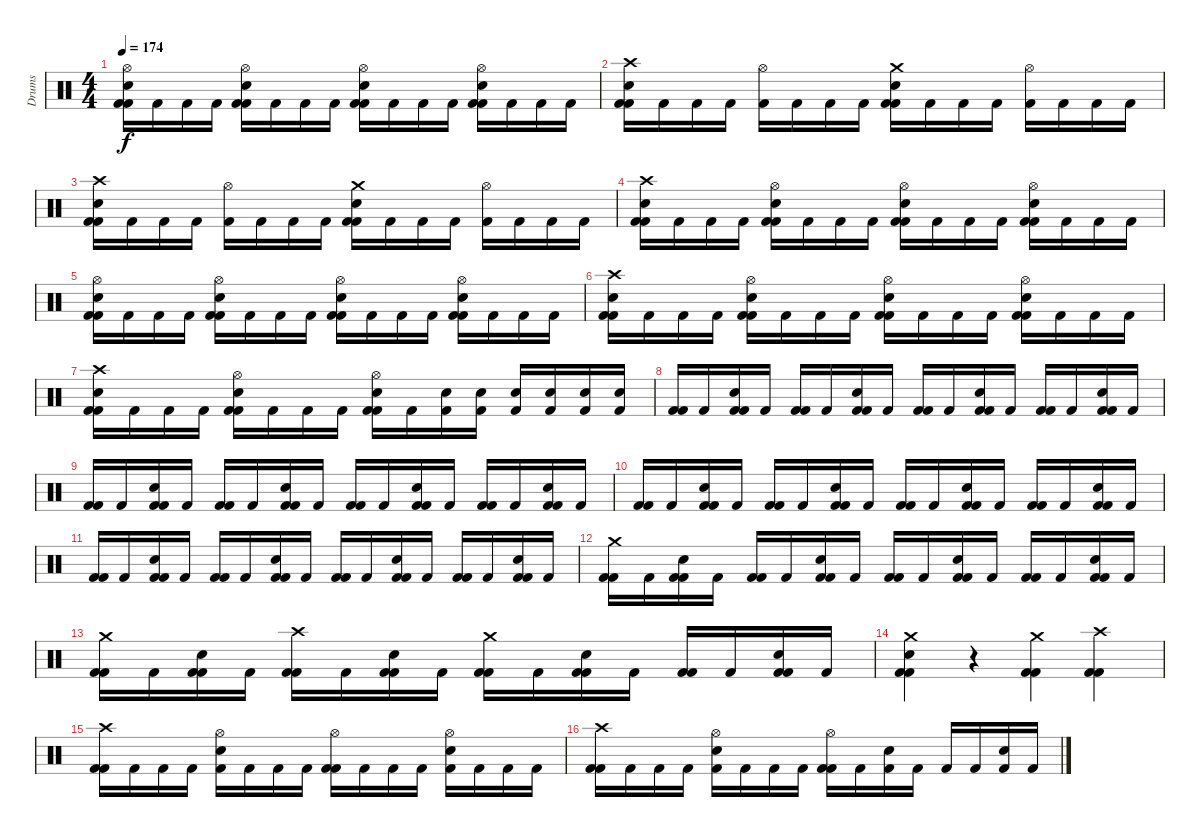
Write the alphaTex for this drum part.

\track ("Drums" "Drums") {instrument percussion}
\staff {score}
\articulation defaults
\ts (4 4)
\tempo 174
\clef neutral
\ks c
("Kick (hit) 2" "Kick (hit) 2" "Electric Snare (hit)" "Hi-Hat (open)").16{dy f} "Kick (hit) 2".16 "Kick (hit) 2".16 "Kick (hit) 2".16 ("Kick (hit) 2" "Kick (hit) 2" "Electric Snare (hit)" "Hi-Hat (open)").16 "Kick (hit) 2".16 "Kick (hit) 2".16 "Kick (hit) 2".16 ("Kick (hit) 2" "Kick (hit) 2" "Electric Snare (hit)" "Hi-Hat (open)").16 "Kick (hit) 2".16 "Kick (hit) 2".16 "Kick (hit) 2".16 ("Kick (hit) 2" "Kick (hit) 2" "Electric Snare (hit)" "Hi-Hat (open)").16 "Kick (hit) 2".16 "Kick (hit) 2".16 "Kick (hit) 2".16 |
("Kick (hit) 2" "Kick (hit) 2" "Electric Snare (hit)" "Crash high (hit)").16 "Kick (hit) 2".16 "Kick (hit) 2".16 "Kick (hit) 2".16 ("Kick (hit) 2" "Hi-Hat (open)").16 "Kick (hit) 2".16 "Kick (hit) 2".16 "Kick (hit) 2".16 ("Kick (hit) 2" "Kick (hit) 2" "Electric Snare (hit)" "Crash medium (hit)").16 "Kick (hit) 2".16 "Kick (hit) 2".16 "Kick (hit) 2".16 ("Kick (hit) 2" "Hi-Hat (open)").16 "Kick (hit) 2".16 "Kick (hit) 2".16 "Kick (hit) 2".16 |
("Kick (hit) 2" "Kick (hit) 2" "Electric Snare (hit)" "Crash high (hit)").16 "Kick (hit) 2".16 "Kick (hit) 2".16 "Kick (hit) 2".16 ("Kick (hit) 2" "Hi-Hat (open)").16 "Kick (hit) 2".16 "Kick (hit) 2".16 "Kick (hit) 2".16 ("Kick (hit) 2" "Kick (hit) 2" "Electric Snare (hit)" "Crash medium (hit)").16 "Kick (hit) 2".16 "Kick (hit) 2".16 "Kick (hit) 2".16 ("Kick (hit) 2" "Hi-Hat (open)").16 "Kick (hit) 2".16 "Kick (hit) 2".16 "Kick (hit) 2".16 |
("Kick (hit) 2" "Kick (hit) 2" "Electric Snare (hit)" "Crash high (hit)").16 "Kick (hit) 2".16 "Kick (hit) 2".16 "Kick (hit) 2".16 ("Kick (hit) 2" "Kick (hit) 2" "Electric Snare (hit)" "Hi-Hat (open)").16 "Kick (hit) 2".16 "Kick (hit) 2".16 "Kick (hit) 2".16 ("Kick (hit) 2" "Kick (hit) 2" "Electric Snare (hit)" "Hi-Hat (open)").16 "Kick (hit) 2".16 "Kick (hit) 2".16 "Kick (hit) 2".16 ("Kick (hit) 2" "Kick (hit) 2" "Electric Snare (hit)" "Hi-Hat (open)").16 "Kick (hit) 2".16 "Kick (hit) 2".16 "Kick (hit) 2".16 |
("Kick (hit) 2" "Kick (hit) 2" "Electric Snare (hit)" "Hi-Hat (open)").16 "Kick (hit) 2".16 "Kick (hit) 2".16 "Kick (hit) 2".16 ("Kick (hit) 2" "Kick (hit) 2" "Electric Snare (hit)" "Hi-Hat (open)").16 "Kick (hit) 2".16 "Kick (hit) 2".16 "Kick (hit) 2".16 ("Kick (hit) 2" "Kick (hit) 2" "Electric Snare (hit)" "Hi-Hat (open)").16 "Kick (hit) 2".16 "Kick (hit) 2".16 "Kick (hit) 2".16 ("Kick (hit) 2" "Kick (hit) 2" "Electric Snare (hit)" "Hi-Hat (open)").16 "Kick (hit) 2".16 "Kick (hit) 2".16 "Kick (hit) 2".16 |
("Kick (hit) 2" "Kick (hit) 2" "Electric Snare (hit)" "Crash high (hit)").16 "Kick (hit) 2".16 "Kick (hit) 2".16 "Kick (hit) 2".16 ("Kick (hit) 2" "Kick (hit) 2" "Electric Snare (hit)" "Hi-Hat (open)").16 "Kick (hit) 2".16 "Kick (hit) 2".16 "Kick (hit) 2".16 ("Kick (hit) 2" "Kick (hit) 2" "Electric Snare (hit)" "Hi-Hat (open)").16 "Kick (hit) 2".16 "Kick (hit) 2".16 "Kick (hit) 2".16 ("Kick (hit) 2" "Kick (hit) 2" "Electric Snare (hit)" "Hi-Hat (open)").16 "Kick (hit) 2".16 "Kick (hit) 2".16 "Kick (hit) 2".16 |
("Kick (hit) 2" "Kick (hit) 2" "Electric Snare (hit)" "Crash high (hit)").16 "Kick (hit) 2".16 "Kick (hit) 2".16 "Kick (hit) 2".16 ("Kick (hit) 2" "Kick (hit) 2" "Electric Snare (hit)" "Hi-Hat (open)").16 "Kick (hit) 2".16 "Kick (hit) 2".16 "Kick (hit) 2".16 ("Kick (hit) 2" "Kick (hit) 2" "Electric Snare (hit)" "Hi-Hat (open)").16 "Kick (hit) 2".16 ("Kick (hit) 2" "Electric Snare (hit)").16 ("Kick (hit) 2" "Electric Snare (hit)").16 ("Kick (hit) 2" "Electric Snare (hit)").16 ("Kick (hit) 2" "Electric Snare (hit)").16 ("Kick (hit) 2" "Electric Snare (hit)").16 ("Kick (hit) 2" "Electric Snare (hit)").16 |
("Kick (hit) 2" "Kick (hit) 2").16 "Kick (hit) 2".16 ("Kick (hit) 2" "Kick (hit) 2" "Electric Snare (hit)").16 "Kick (hit) 2".16 ("Kick (hit) 2" "Kick (hit) 2").16 "Kick (hit) 2".16 ("Kick (hit) 2" "Kick (hit) 2" "Electric Snare (hit)").16 "Kick (hit) 2".16 ("Kick (hit) 2" "Kick (hit) 2").16 "Kick (hit) 2".16 ("Kick (hit) 2" "Kick (hit) 2" "Electric Snare (hit)").16 "Kick (hit) 2".16 ("Kick (hit) 2" "Kick (hit) 2").16 "Kick (hit) 2".16 ("Kick (hit) 2" "Kick (hit) 2" "Electric Snare (hit)").16 "Kick (hit) 2".16 |
("Kick (hit) 2" "Kick (hit) 2").16 "Kick (hit) 2".16 ("Kick (hit) 2" "Kick (hit) 2" "Electric Snare (hit)").16 "Kick (hit) 2".16 ("Kick (hit) 2" "Kick (hit) 2").16 "Kick (hit) 2".16 ("Kick (hit) 2" "Kick (hit) 2" "Electric Snare (hit)").16 "Kick (hit) 2".16 ("Kick (hit) 2" "Kick (hit) 2").16 "Kick (hit) 2".16 ("Kick (hit) 2" "Kick (hit) 2" "Electric Snare (hit)").16 "Kick (hit) 2".16 ("Kick (hit) 2" "Kick (hit) 2").16 "Kick (hit) 2".16 ("Kick (hit) 2" "Kick (hit) 2" "Electric Snare (hit)").16 "Kick (hit) 2".16 |
("Kick (hit) 2" "Kick (hit) 2").16 "Kick (hit) 2".16 ("Kick (hit) 2" "Kick (hit) 2" "Electric Snare (hit)").16 "Kick (hit) 2".16 ("Kick (hit) 2" "Kick (hit) 2").16 "Kick (hit) 2".16 ("Kick (hit) 2" "Kick (hit) 2" "Electric Snare (hit)").16 "Kick (hit) 2".16 ("Kick (hit) 2" "Kick (hit) 2").16 "Kick (hit) 2".16 ("Kick (hit) 2" "Kick (hit) 2" "Electric Snare (hit)").16 "Kick (hit) 2".16 ("Kick (hit) 2" "Kick (hit) 2").16 "Kick (hit) 2".16 ("Kick (hit) 2" "Kick (hit) 2" "Electric Snare (hit)").16 "Kick (hit) 2".16 |
("Kick (hit) 2" "Kick (hit) 2").16 "Kick (hit) 2".16 ("Kick (hit) 2" "Kick (hit) 2" "Electric Snare (hit)").16 "Kick (hit) 2".16 ("Kick (hit) 2" "Kick (hit) 2").16 "Kick (hit) 2".16 ("Kick (hit) 2" "Kick (hit) 2" "Electric Snare (hit)").16 "Kick (hit) 2".16 ("Kick (hit) 2" "Kick (hit) 2").16 "Kick (hit) 2".16 ("Kick (hit) 2" "Kick (hit) 2" "Electric Snare (hit)").16 "Kick (hit) 2".16 ("Kick (hit) 2" "Kick (hit) 2").16 "Kick (hit) 2".16 ("Kick (hit) 2" "Kick (hit) 2" "Electric Snare (hit)").16 "Kick (hit) 2".16 |
("Kick (hit) 2" "Kick (hit) 2" "Crash medium (hit)").16 "Kick (hit) 2".16 ("Kick (hit) 2" "Kick (hit) 2" "Electric Snare (hit)").16 "Kick (hit) 2".16 ("Kick (hit) 2" "Kick (hit) 2").16 "Kick (hit) 2".16 ("Kick (hit) 2" "Kick (hit) 2" "Electric Snare (hit)").16 "Kick (hit) 2".16 ("Kick (hit) 2" "Kick (hit) 2").16 "Kick (hit) 2".16 ("Kick (hit) 2" "Kick (hit) 2" "Electric Snare (hit)").16 "Kick (hit) 2".16 ("Kick (hit) 2" "Kick (hit) 2").16 "Kick (hit) 2".16 ("Kick (hit) 2" "Kick (hit) 2" "Electric Snare (hit)").16 "Kick (hit) 2".16 |
("Kick (hit) 2" "Kick (hit) 2" "Crash medium (hit)").16 "Kick (hit) 2".16 ("Kick (hit) 2" "Kick (hit) 2" "Electric Snare (hit)").16 "Kick (hit) 2".16 ("Kick (hit) 2" "Kick (hit) 2" "Crash high (hit)").16 "Kick (hit) 2".16 ("Kick (hit) 2" "Kick (hit) 2" "Electric Snare (hit)").16 "Kick (hit) 2".16 ("Kick (hit) 2" "Kick (hit) 2" "Crash medium (hit)").16 "Kick (hit) 2".16 ("Kick (hit) 2" "Kick (hit) 2" "Electric Snare (hit)").16 "Kick (hit) 2".16 ("Kick (hit) 2" "Kick (hit) 2").16 "Kick (hit) 2".16 ("Kick (hit) 2" "Kick (hit) 2" "Electric Snare (hit)").16 "Kick (hit) 2".16 |
("Kick (hit) 2" "Kick (hit) 2" "Electric Snare (hit)" "Crash medium (hit)").4 r.4 ("Kick (hit) 2" "Kick (hit) 2" "Crash medium (hit)").4 ("Kick (hit) 2" "Kick (hit) 2" "Crash high (hit)").4 |
("Kick (hit) 2" "Kick (hit) 2" "Crash high (hit)").16 "Kick (hit) 2".16 "Kick (hit) 2".16 "Kick (hit) 2".16 ("Kick (hit) 2" "Electric Snare (hit)" "Hi-Hat (open)").16 "Kick (hit) 2".16 "Kick (hit) 2".16 "Kick (hit) 2".16 ("Kick (hit) 2" "Kick (hit) 2" "Hi-Hat (open)").16 "Kick (hit) 2".16 "Kick (hit) 2".16 "Kick (hit) 2".16 ("Kick (hit) 2" "Electric Snare (hit)" "Hi-Hat (open)").16 "Kick (hit) 2".16 "Kick (hit) 2".16 "Kick (hit) 2".16 |
("Kick (hit) 2" "Kick (hit) 2" "Crash high (hit)").16 "Kick (hit) 2".16 "Kick (hit) 2".16 "Kick (hit) 2".16 ("Kick (hit) 2" "Electric Snare (hit)" "Hi-Hat (open)").16 "Kick (hit) 2".16 "Kick (hit) 2".16 "Kick (hit) 2".16 ("Kick (hit) 2" "Kick (hit) 2" "Hi-Hat (open)").16 "Kick (hit) 2".16 ("Kick (hit) 2" "Electric Snare (hit)").16 "Kick (hit) 2".16 "Kick (hit) 2".16 "Kick (hit) 2".16 ("Kick (hit) 2" "Electric Snare (hit)").16 "Kick (hit) 2".16
